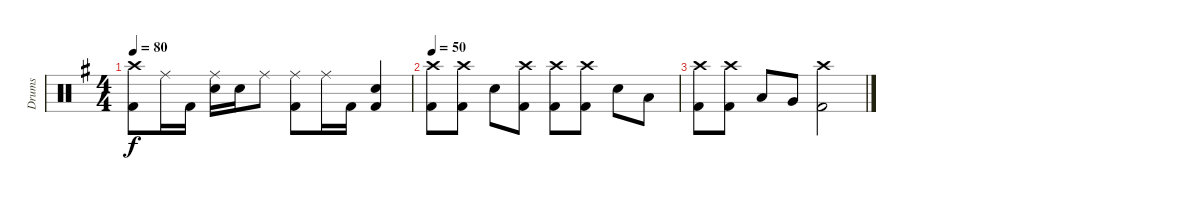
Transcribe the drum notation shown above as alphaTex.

\track ("Drums" "Drums") {instrument percussion}
\staff {score}
\articulation defaults
\ts (4 4)
\tempo 80
\clef neutral
\ks g
("Crash high (hit)" "Kick (hit) 2").8{dy f} "Ride (middle)".16 "Kick (hit) 2".16 ("Ride (middle)" "Electric Snare (hit)").16 "Electric Snare (hit)".16 "Ride (middle)".8 ("Ride (middle)" "Kick (hit) 2").8 "Ride (middle)".16 "Kick (hit) 2".16 ("Electric Snare (hit)" "Kick (hit) 2").4 |
\tempo 50
("Crash high (hit)" "Kick (hit) 2").8 ("Crash high (hit)" "Kick (hit) 2").8 "Electric Snare (hit)".8 ("Crash high (hit)" "Kick (hit) 2").8 ("Crash high (hit)" "Kick (hit) 2").8 ("Crash high (hit)" "Kick (hit) 2").8 "Electric Snare (hit)".8 "Low Tom (hit)".8 |
("Crash high (hit)" "Kick (hit) 2").8 ("Crash high (hit)" "Kick (hit) 2").8 "Low Tom (hit)".8 "Very Low Tom (hit)".8 ("Crash high (hit)" "Kick (hit) 2").2
